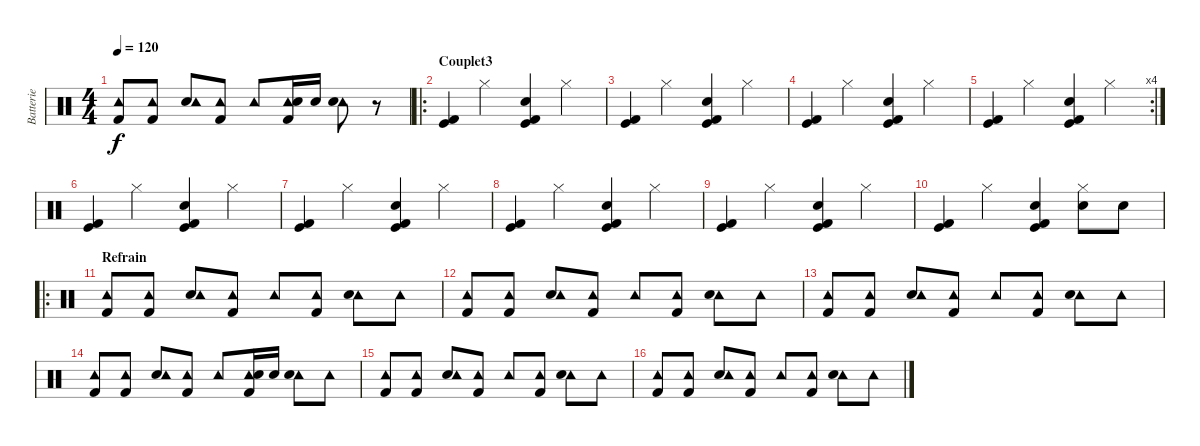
\track ("Batterie" "Batterie") {instrument percussion}
\staff {score}
\articulation defaults
\ts (4 4)
\tempo 120
\clef neutral
\ks c
("Kick (hit) 2" "Tambourine (hit)").8{dy f} ("Kick (hit) 2" "Tambourine (hit)").8 ("Snare (hit) 2" "Tambourine (hit)").8 ("Tambourine (hit)" "Kick (hit) 2").8 "Tambourine (hit)".8 ("Tambourine (hit)" "Kick (hit) 2" "Snare (hit) 2").16 "Snare (hit) 2".16 ("Tambourine (hit)" "Snare (hit) 2").8 r.8 |
\ro
\section ("" "Couplet3")
("Kick (hit) 2" "Kick (hit)").4 "Hi-Hat (closed)".4 ("Electric Snare (hit)" "Kick (hit) 2" "Kick (hit)").4 "Hi-Hat (closed)".4 |
("Kick (hit) 2" "Kick (hit)").4 "Hi-Hat (closed)".4 ("Electric Snare (hit)" "Kick (hit) 2" "Kick (hit)").4 "Hi-Hat (closed)".4 |
("Kick (hit) 2" "Kick (hit)").4 "Hi-Hat (closed)".4 ("Electric Snare (hit)" "Kick (hit) 2" "Kick (hit)").4 "Hi-Hat (closed)".4 |
\rc 4
("Kick (hit) 2" "Kick (hit)").4 "Hi-Hat (closed)".4 ("Electric Snare (hit)" "Kick (hit) 2" "Kick (hit)").4 "Hi-Hat (closed)".4 |
("Kick (hit) 2" "Kick (hit)").4 "Hi-Hat (closed)".4 ("Electric Snare (hit)" "Kick (hit) 2" "Kick (hit)").4 "Hi-Hat (closed)".4 |
("Kick (hit) 2" "Kick (hit)").4 "Hi-Hat (closed)".4 ("Electric Snare (hit)" "Kick (hit) 2" "Kick (hit)").4 "Hi-Hat (closed)".4 |
("Kick (hit) 2" "Kick (hit)").4 "Hi-Hat (closed)".4 ("Electric Snare (hit)" "Kick (hit) 2" "Kick (hit)").4 "Hi-Hat (closed)".4 |
("Kick (hit) 2" "Kick (hit)").4 "Hi-Hat (closed)".4 ("Electric Snare (hit)" "Kick (hit) 2" "Kick (hit)").4 "Hi-Hat (closed)".4 |
("Kick (hit) 2" "Kick (hit)").4 "Hi-Hat (closed)".4 ("Electric Snare (hit)" "Kick (hit) 2" "Kick (hit)").4 ("Hi-Hat (closed)" "Electric Snare (hit)").8 "Electric Snare (hit)".8 |
\ro
\section ("" "Refrain")
("Kick (hit) 2" "Tambourine (hit)").8 ("Kick (hit) 2" "Tambourine (hit)").8 ("Snare (hit) 2" "Tambourine (hit)").8 ("Tambourine (hit)" "Kick (hit) 2").8 "Tambourine (hit)".8 ("Tambourine (hit)" "Kick (hit) 2").8 ("Tambourine (hit)" "Snare (hit) 2").8 "Tambourine (hit)".8 |
("Kick (hit) 2" "Tambourine (hit)").8 ("Kick (hit) 2" "Tambourine (hit)").8 ("Snare (hit) 2" "Tambourine (hit)").8 ("Tambourine (hit)" "Kick (hit) 2").8 "Tambourine (hit)".8 ("Tambourine (hit)" "Kick (hit) 2").8 ("Tambourine (hit)" "Snare (hit) 2").8 "Tambourine (hit)".8 |
("Kick (hit) 2" "Tambourine (hit)").8 ("Kick (hit) 2" "Tambourine (hit)").8 ("Snare (hit) 2" "Tambourine (hit)").8 ("Tambourine (hit)" "Kick (hit) 2").8 "Tambourine (hit)".8 ("Tambourine (hit)" "Kick (hit) 2").8 ("Tambourine (hit)" "Snare (hit) 2").8 "Tambourine (hit)".8 |
("Kick (hit) 2" "Tambourine (hit)").8 ("Kick (hit) 2" "Tambourine (hit)").8 ("Snare (hit) 2" "Tambourine (hit)").8 ("Tambourine (hit)" "Kick (hit) 2").8 "Tambourine (hit)".8 ("Tambourine (hit)" "Kick (hit) 2" "Snare (hit) 2").16 "Snare (hit) 2".16 ("Tambourine (hit)" "Snare (hit) 2").8 "Tambourine (hit)".8 |
("Kick (hit) 2" "Tambourine (hit)").8 ("Kick (hit) 2" "Tambourine (hit)").8 ("Snare (hit) 2" "Tambourine (hit)").8 ("Tambourine (hit)" "Kick (hit) 2").8 "Tambourine (hit)".8 ("Tambourine (hit)" "Kick (hit) 2").8 ("Tambourine (hit)" "Snare (hit) 2").8 "Tambourine (hit)".8 |
("Kick (hit) 2" "Tambourine (hit)").8 ("Kick (hit) 2" "Tambourine (hit)").8 ("Snare (hit) 2" "Tambourine (hit)").8 ("Tambourine (hit)" "Kick (hit) 2").8 "Tambourine (hit)".8 ("Tambourine (hit)" "Kick (hit) 2").8 ("Tambourine (hit)" "Snare (hit) 2").8 "Tambourine (hit)".8
